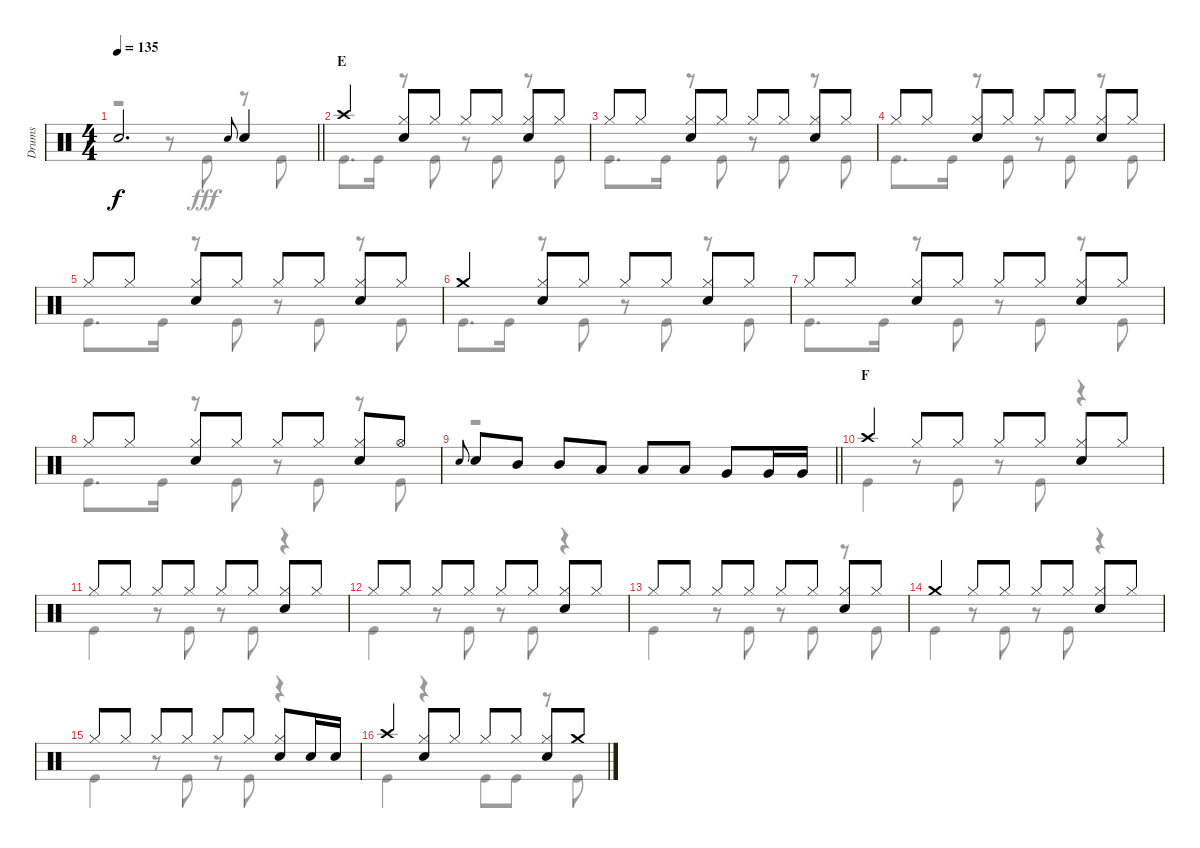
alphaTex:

\track ("Drums" "Drums") {instrument percussion}
\staff {score}
\articulation defaults
\voice
\ts (4 4)
\tempo 135
\clef neutral
\barLineRight lightlight
\ks c "Snare (hit)"{t}.2{d dy f} "Snare (hit) 2".8{gr onbeat} "Snare (hit) 2".4
|
\section ("" "E")
"Crash high (hit)".4 ("Hi-Hat (closed)" "Snare (hit) 2").8 "Hi-Hat (closed)".8 "Hi-Hat (closed)".8 "Hi-Hat (closed)".8 ("Hi-Hat (closed)" "Snare (hit) 2").8 "Hi-Hat (closed)".8 |
"Hi-Hat (closed)".8 "Hi-Hat (closed)".8 ("Hi-Hat (closed)" "Snare (hit) 2").8 "Hi-Hat (closed)".8 "Hi-Hat (closed)".8 "Hi-Hat (closed)".8 ("Hi-Hat (closed)" "Snare (hit) 2").8 "Hi-Hat (closed)".8 |
"Hi-Hat (closed)".8 "Hi-Hat (closed)".8 ("Hi-Hat (closed)" "Snare (hit) 2").8 "Hi-Hat (closed)".8 "Hi-Hat (closed)".8 "Hi-Hat (closed)".8 ("Hi-Hat (closed)" "Snare (hit) 2").8 "Hi-Hat (closed)".8 |
"Hi-Hat (closed)".8 "Hi-Hat (closed)".8 ("Hi-Hat (closed)" "Snare (hit) 2").8 "Hi-Hat (closed)".8 "Hi-Hat (closed)".8 "Hi-Hat (closed)".8 ("Hi-Hat (closed)" "Snare (hit) 2").8 "Hi-Hat (closed)".8 |
"Crash medium (hit)".4 ("Hi-Hat (closed)" "Snare (hit) 2").8 "Hi-Hat (closed)".8 "Hi-Hat (closed)".8 "Hi-Hat (closed)".8 ("Hi-Hat (closed)" "Snare (hit) 2").8 "Hi-Hat (closed)".8 |
"Hi-Hat (closed)".8 "Hi-Hat (closed)".8 ("Hi-Hat (closed)" "Snare (hit) 2").8 "Hi-Hat (closed)".8 "Hi-Hat (closed)".8 "Hi-Hat (closed)".8 ("Hi-Hat (closed)" "Snare (hit) 2").8 "Hi-Hat (closed)".8 |
"Hi-Hat (closed)".8 "Hi-Hat (closed)".8 ("Hi-Hat (closed)" "Snare (hit) 2").8 "Hi-Hat (closed)".8 "Hi-Hat (closed)".8 "Hi-Hat (closed)".8 ("Hi-Hat (closed)" "Snare (hit) 2").8 "Hi-Hat (open)".8 |
\barLineRight lightlight "Snare (hit) 2".8{gr onbeat} "Snare (hit) 2".8 "Mid Tom (hit)".8 "Mid Tom (hit)".8 "Low Tom (hit)".8 "Low Tom (hit)".8 "Low Tom (hit)".8 "Very Low Tom (hit)".8 "Very Low Tom (hit)".16 "Very Low Tom (hit)".16
|
\section ("" "F")
"Crash high (hit)".4 "Hi-Hat (closed)".8 "Hi-Hat (closed)".8 "Hi-Hat (closed)".8 "Hi-Hat (closed)".8 ("Hi-Hat (closed)" "Snare (hit) 2").8 "Hi-Hat (closed)".8 |
"Hi-Hat (closed)".8 "Hi-Hat (closed)".8 "Hi-Hat (closed)".8 "Hi-Hat (closed)".8 "Hi-Hat (closed)".8 "Hi-Hat (closed)".8 ("Hi-Hat (closed)" "Snare (hit) 2").8 "Hi-Hat (closed)".8 |
"Hi-Hat (closed)".8 "Hi-Hat (closed)".8 "Hi-Hat (closed)".8 "Hi-Hat (closed)".8 "Hi-Hat (closed)".8 "Hi-Hat (closed)".8 ("Hi-Hat (closed)" "Snare (hit) 2").8 "Hi-Hat (closed)".8 |
"Hi-Hat (closed)".8 "Hi-Hat (closed)".8 "Hi-Hat (closed)".8 "Hi-Hat (closed)".8 "Hi-Hat (closed)".8 "Hi-Hat (closed)".8 ("Hi-Hat (closed)" "Snare (hit) 2").8 "Hi-Hat (closed)".8 |
"Crash medium (hit)".4 "Hi-Hat (closed)".8 "Hi-Hat (closed)".8 "Hi-Hat (closed)".8 "Hi-Hat (closed)".8 ("Hi-Hat (closed)" "Snare (hit) 2").8 "Hi-Hat (closed)".8 |
"Hi-Hat (closed)".8 "Hi-Hat (closed)".8 "Hi-Hat (closed)".8 "Hi-Hat (closed)".8 "Hi-Hat (closed)".8 "Hi-Hat (closed)".8 ("Hi-Hat (closed)" "Snare (hit) 2").8 "Snare (hit) 2".16 "Snare (hit) 2".16 |
"Crash high (hit)".4 ("Hi-Hat (closed)" "Snare (hit) 2").8 "Hi-Hat (closed)".8 "Hi-Hat (closed)".8 "Hi-Hat (closed)".8 ("Hi-Hat (closed)" "Snare (hit) 2").8 "Crash medium (hit)".8
\voice
\clef neutral
\ottava regular
\simile none
\barLineRight lightlight
\ks c
r.2{dy fff} r.8 "Kick (hit)".8 r.8 "Kick (hit)".8 |
"Kick (hit)".8{d} "Kick (hit)".16 r.8 "Kick (hit)".8 r.8 "Kick (hit)".8 r.8 "Kick (hit)".8 |
"Kick (hit)".8{d} "Kick (hit)".16 r.8 "Kick (hit)".8 r.8 "Kick (hit)".8 r.8 "Kick (hit)".8 |
"Kick (hit)".8{d} "Kick (hit)".16 r.8 "Kick (hit)".8 r.8 "Kick (hit)".8 r.8 "Kick (hit)".8 |
"Kick (hit)".8{d} "Kick (hit)".16 r.8 "Kick (hit)".8 r.8 "Kick (hit)".8 r.8 "Kick (hit)".8 |
"Kick (hit)".8{d} "Kick (hit)".16 r.8 "Kick (hit)".8 r.8 "Kick (hit)".8 r.8 "Kick (hit)".8 |
"Kick (hit)".8{d} "Kick (hit)".16 r.8 "Kick (hit)".8 r.8 "Kick (hit)".8 r.8 "Kick (hit)".8 |
"Kick (hit)".8{d} "Kick (hit)".16 r.8 "Kick (hit)".8 r.8 "Kick (hit)".8 r.8 "Kick (hit)".8 |
\barLineRight lightlight
r.1 |
"Kick (hit)".4 r.8 "Kick (hit)".8 r.8 "Kick (hit)".8 r.4 |
"Kick (hit)".4 r.8 "Kick (hit)".8 r.8 "Kick (hit)".8 r.4 |
"Kick (hit)".4 r.8 "Kick (hit)".8 r.8 "Kick (hit)".8 r.4 |
"Kick (hit)".4 r.8 "Kick (hit)".8 r.8 "Kick (hit)".8 r.8 "Kick (hit)".8 |
"Kick (hit)".4 r.8 "Kick (hit)".8 r.8 "Kick (hit)".8 r.4 |
"Kick (hit)".4 r.8 "Kick (hit)".8 r.8 "Kick (hit)".8 r.4 |
"Kick (hit)".4 r.4 "Kick (hit)".8 "Kick (hit)".8 r.8 "Kick (hit)".8
